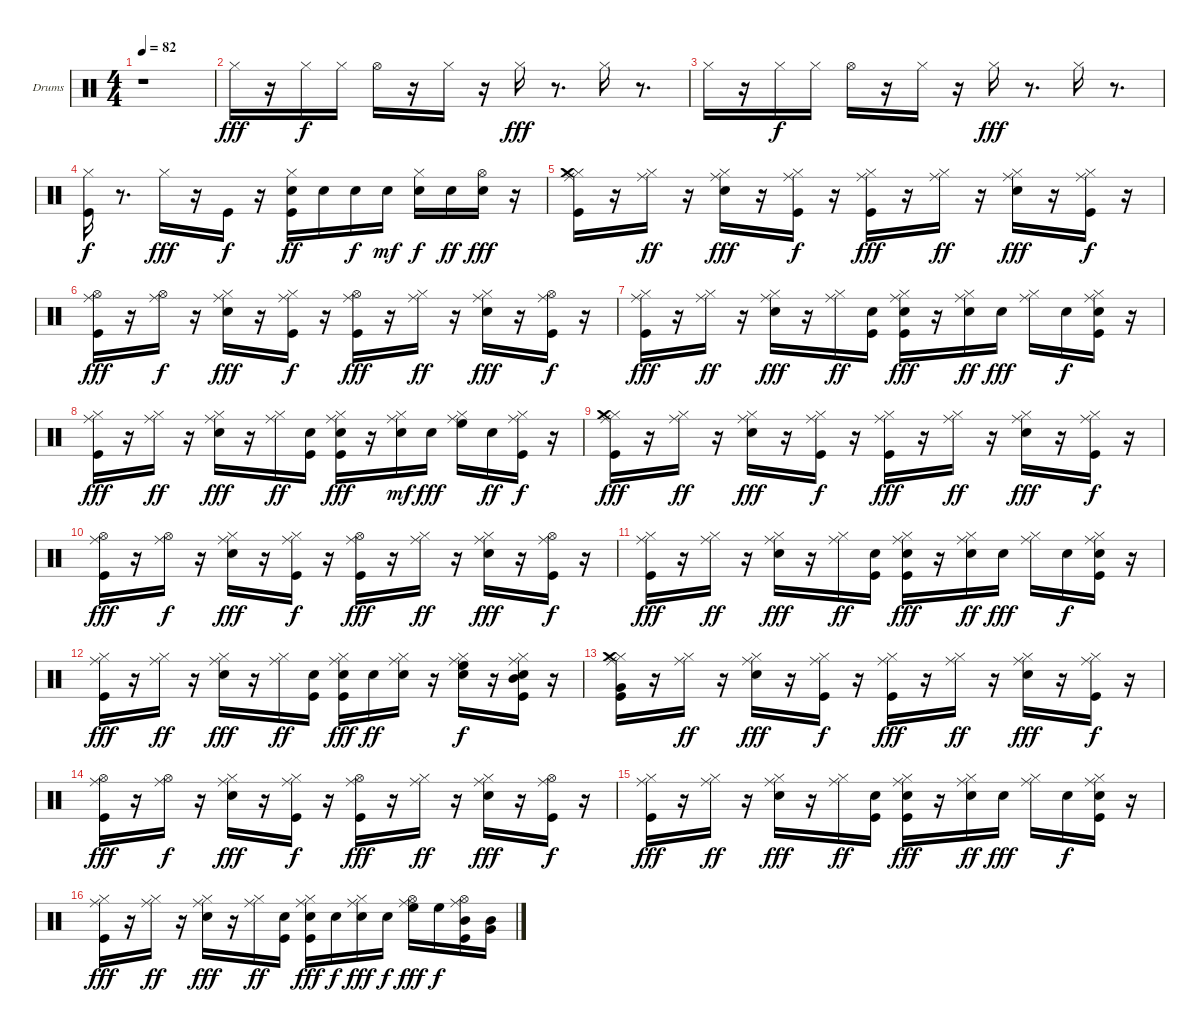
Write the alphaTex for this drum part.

\bracketExtendMode groupsimilarinstruments
\firstSystemTrackNameOrientation horizontal
\otherSystemsTrackNameOrientation horizontal
\track ("Drumkit" "Drums") {instrument percussion}
\staff {score}
\articulation defaults
\ts (4 4)
\tempo 82
\clef neutral
\ks c
r.1{dy fff} |
"Hi-Hat (closed)".16 r.16 "Hi-Hat (closed)".16{dy f} "Hi-Hat (closed)".16 "Hi-Hat (open)".16 r.16 "Hi-Hat (closed)".16 r.16 "Hi-Hat (closed)".16{dy fff} r.8{d} "Hi-Hat (closed)".16 r.8{d} |
"Hi-Hat (closed)".16 r.16 "Hi-Hat (closed)".16{dy f} "Hi-Hat (closed)".16 "Hi-Hat (open)".16 r.16 "Hi-Hat (closed)".16 r.16 "Hi-Hat (closed)".16{dy fff} r.8{d} "Hi-Hat (closed)".16 r.8{d} |
("Kick (hit)" "Hi-Hat (closed)").16{dy f} r.8{d} "Hi-Hat (closed)".16{dy fff} r.16 "Kick (hit)".16{dy f} r.16 ("Kick (hit)" "Snare (hit) 2" "Hi-Hat (closed)").16{dy ff} "Snare (hit) 2".16 "Snare (hit) 2".16{dy f} "Snare (hit) 2".16{dy mf} ("Snare (hit) 2" "Hi-Hat (closed)").16{dy f} "Snare (hit) 2".16{dy ff} ("Snare (hit) 2" "Hi-Hat (open)").16{dy fff} r.16 |
("Kick (hit)" "Hi-Hat (closed)" "Ride (middle)" "Crash medium (hit)").16 r.16 ("Hi-Hat (closed)" "Ride (middle)").16{dy ff} r.16 ("Snare (hit) 2" "Hi-Hat (closed)" "Ride (middle)").16{dy fff} r.16 ("Kick (hit)" "Hi-Hat (closed)" "Ride (middle)").16{dy f} r.16 ("Kick (hit)" "Hi-Hat (closed)" "Ride (middle)").16{dy fff} r.16 ("Hi-Hat (closed)" "Ride (middle)").16{dy ff} r.16 ("Snare (hit) 2" "Hi-Hat (closed)" "Ride (middle)").16{dy fff} r.16 ("Kick (hit)" "Hi-Hat (closed)" "Ride (middle)").16{dy f} r.16 |
("Kick (hit)" "Hi-Hat (open)" "Ride (middle)").16{dy fff} r.16 ("Hi-Hat (open)" "Ride (middle)").16{dy f} r.16 ("Snare (hit) 2" "Hi-Hat (closed)" "Ride (middle)").16{dy fff} r.16 ("Kick (hit)" "Hi-Hat (closed)" "Ride (middle)").16{dy f} r.16 ("Kick (hit)" "Hi-Hat (open)" "Ride (middle)").16{dy fff} r.16 ("Hi-Hat (closed)" "Ride (middle)").16{dy ff} r.16 ("Snare (hit) 2" "Hi-Hat (closed)" "Ride (middle)").16{dy fff} r.16 ("Kick (hit)" "Hi-Hat (open)" "Ride (middle)").16{dy f} r.16 |
("Kick (hit)" "Hi-Hat (closed)" "Ride (middle)").16{dy fff} r.16 ("Hi-Hat (closed)" "Ride (middle)").16{dy ff} r.16 ("Snare (hit) 2" "Hi-Hat (closed)" "Ride (middle)").16{dy fff} r.16 ("Hi-Hat (closed)" "Ride (middle)").16{dy ff} ("Kick (hit)" "Snare (hit) 2").16 ("Kick (hit)" "Snare (hit) 2" "Hi-Hat (closed)" "Ride (middle)").16{dy fff} r.16 ("Snare (hit) 2" "Hi-Hat (closed)" "Ride (middle)").16{dy ff} "Snare (hit) 2".16{dy fff} ("Hi-Hat (closed)" "Ride (middle)").16 "Snare (hit) 2".16{dy f} ("Kick (hit)" "Snare (hit) 2" "Hi-Hat (closed)" "Ride (middle)").16 r.16 |
("Kick (hit)" "Hi-Hat (closed)" "Ride (middle)").16{dy fff} r.16 ("Hi-Hat (closed)" "Ride (middle)").16{dy ff} r.16 ("Snare (hit) 2" "Hi-Hat (closed)" "Ride (middle)").16{dy fff} r.16 ("Hi-Hat (closed)" "Ride (middle)").16{dy ff} ("Kick (hit)" "Snare (hit) 2").16 ("Kick (hit)" "Snare (hit) 2" "Hi-Hat (closed)" "Ride (middle)").16{dy fff} r.16 ("Snare (hit) 2" "Hi-Hat (closed)" "Ride (middle)").16{dy mf} "Snare (hit) 2".16{dy fff} ("Hi-Hat (closed)" "Ride (middle)" "High Floor Tom (hit)").16 "Snare (hit) 2".16{dy ff} ("Kick (hit)" "Hi-Hat (closed)" "Ride (middle)").16{dy f} r.16 |
("Kick (hit)" "Hi-Hat (closed)" "Ride (middle)" "Crash medium (hit)").16{dy fff} r.16 ("Hi-Hat (closed)" "Ride (middle)").16{dy ff} r.16 ("Snare (hit) 2" "Hi-Hat (closed)" "Ride (middle)").16{dy fff} r.16 ("Kick (hit)" "Hi-Hat (closed)" "Ride (middle)").16{dy f} r.16 ("Kick (hit)" "Hi-Hat (closed)" "Ride (middle)").16{dy fff} r.16 ("Hi-Hat (closed)" "Ride (middle)").16{dy ff} r.16 ("Snare (hit) 2" "Hi-Hat (closed)" "Ride (middle)").16{dy fff} r.16 ("Kick (hit)" "Hi-Hat (closed)" "Ride (middle)").16{dy f} r.16 |
("Kick (hit)" "Hi-Hat (open)" "Ride (middle)").16{dy fff} r.16 ("Hi-Hat (open)" "Ride (middle)").16{dy f} r.16 ("Snare (hit) 2" "Hi-Hat (closed)" "Ride (middle)").16{dy fff} r.16 ("Kick (hit)" "Hi-Hat (closed)" "Ride (middle)").16{dy f} r.16 ("Kick (hit)" "Hi-Hat (open)" "Ride (middle)").16{dy fff} r.16 ("Hi-Hat (closed)" "Ride (middle)").16{dy ff} r.16 ("Snare (hit) 2" "Hi-Hat (closed)" "Ride (middle)").16{dy fff} r.16 ("Kick (hit)" "Hi-Hat (open)" "Ride (middle)").16{dy f} r.16 |
("Kick (hit)" "Hi-Hat (closed)" "Ride (middle)").16{dy fff} r.16 ("Hi-Hat (closed)" "Ride (middle)").16{dy ff} r.16 ("Snare (hit) 2" "Hi-Hat (closed)" "Ride (middle)").16{dy fff} r.16 ("Hi-Hat (closed)" "Ride (middle)").16{dy ff} ("Kick (hit)" "Snare (hit) 2").16 ("Kick (hit)" "Snare (hit) 2" "Hi-Hat (closed)" "Ride (middle)").16{dy fff} r.16 ("Snare (hit) 2" "Hi-Hat (closed)" "Ride (middle)").16{dy ff} "Snare (hit) 2".16{dy fff} ("Hi-Hat (closed)" "Ride (middle)").16 "Snare (hit) 2".16{dy f} ("Kick (hit)" "Snare (hit) 2" "Hi-Hat (closed)" "Ride (middle)").16 r.16 |
("Kick (hit)" "Hi-Hat (closed)" "Ride (middle)").16{dy fff} r.16 ("Hi-Hat (closed)" "Ride (middle)").16{dy ff} r.16 ("Snare (hit) 2" "Hi-Hat (closed)" "Ride (middle)").16{dy fff} r.16 ("Hi-Hat (closed)" "Ride (middle)").16{dy ff} ("Kick (hit)" "Snare (hit) 2").16 ("Kick (hit)" "Snare (hit) 2" "Hi-Hat (closed)" "Ride (middle)").16{dy fff} "Snare (hit) 2".16{dy ff} ("Snare (hit) 2" "Hi-Hat (closed)" "Ride (middle)").16 r.16 ("Snare (hit) 2" "Hi-Hat (closed)" "Ride (middle)" "High Floor Tom (hit)").16{dy f} r.16 ("Snare (hit) 2" "Kick (hit)" "Hi-Hat (closed)" "Ride (middle)" "Mid Tom (hit)").16 r.16 |
("Very Low Tom (hit)" "Kick (hit)" "Hi-Hat (closed)" "Ride (middle)" "Crash medium (hit)").16 r.16 ("Hi-Hat (closed)" "Ride (middle)").16{dy ff} r.16 ("Snare (hit) 2" "Hi-Hat (closed)" "Ride (middle)").16{dy fff} r.16 ("Kick (hit)" "Hi-Hat (closed)" "Ride (middle)").16{dy f} r.16 ("Kick (hit)" "Hi-Hat (closed)" "Ride (middle)").16{dy fff} r.16 ("Hi-Hat (closed)" "Ride (middle)").16{dy ff} r.16 ("Snare (hit) 2" "Hi-Hat (closed)" "Ride (middle)").16{dy fff} r.16 ("Kick (hit)" "Hi-Hat (closed)" "Ride (middle)").16{dy f} r.16 |
("Kick (hit)" "Hi-Hat (open)" "Ride (middle)").16{dy fff} r.16 ("Hi-Hat (open)" "Ride (middle)").16{dy f} r.16 ("Snare (hit) 2" "Hi-Hat (closed)" "Ride (middle)").16{dy fff} r.16 ("Kick (hit)" "Hi-Hat (closed)" "Ride (middle)").16{dy f} r.16 ("Kick (hit)" "Hi-Hat (open)" "Ride (middle)").16{dy fff} r.16 ("Hi-Hat (closed)" "Ride (middle)").16{dy ff} r.16 ("Snare (hit) 2" "Hi-Hat (closed)" "Ride (middle)").16{dy fff} r.16 ("Kick (hit)" "Hi-Hat (open)" "Ride (middle)").16{dy f} r.16 |
("Kick (hit)" "Hi-Hat (closed)" "Ride (middle)").16{dy fff} r.16 ("Hi-Hat (closed)" "Ride (middle)").16{dy ff} r.16 ("Snare (hit) 2" "Hi-Hat (closed)" "Ride (middle)").16{dy fff} r.16 ("Hi-Hat (closed)" "Ride (middle)").16{dy ff} ("Kick (hit)" "Snare (hit) 2").16 ("Kick (hit)" "Snare (hit) 2" "Hi-Hat (closed)" "Ride (middle)").16{dy fff} r.16 ("Snare (hit) 2" "Hi-Hat (closed)" "Ride (middle)").16{dy ff} "Snare (hit) 2".16{dy fff} ("Hi-Hat (closed)" "Ride (middle)").16 "Snare (hit) 2".16{dy f} ("Kick (hit)" "Snare (hit) 2" "Hi-Hat (closed)" "Ride (middle)").16 r.16 |
("Kick (hit)" "Hi-Hat (closed)" "Ride (middle)").16{dy fff} r.16 ("Hi-Hat (closed)" "Ride (middle)").16{dy ff} r.16 ("Snare (hit) 2" "Hi-Hat (closed)" "Ride (middle)").16{dy fff} r.16 ("Hi-Hat (closed)" "Ride (middle)").16{dy ff} ("Kick (hit)" "Snare (hit) 2").16 ("Kick (hit)" "Snare (hit) 2" "Hi-Hat (closed)" "Ride (middle)").16{dy fff} "Snare (hit) 2".16{dy f} ("Snare (hit) 2" "Hi-Hat (closed)" "Ride (middle)").16{dy fff} "Snare (hit) 2".16{dy f} ("Hi-Hat (open)" "Ride (middle)" "High Floor Tom (hit)").16{dy fff} "High Floor Tom (hit)".16{dy f} ("Kick (hit)" "Hi-Hat (open)" "Ride (middle)" "Mid Tom (hit)").16 ("Mid Tom (hit)" "Very Low Tom (hit)").16
